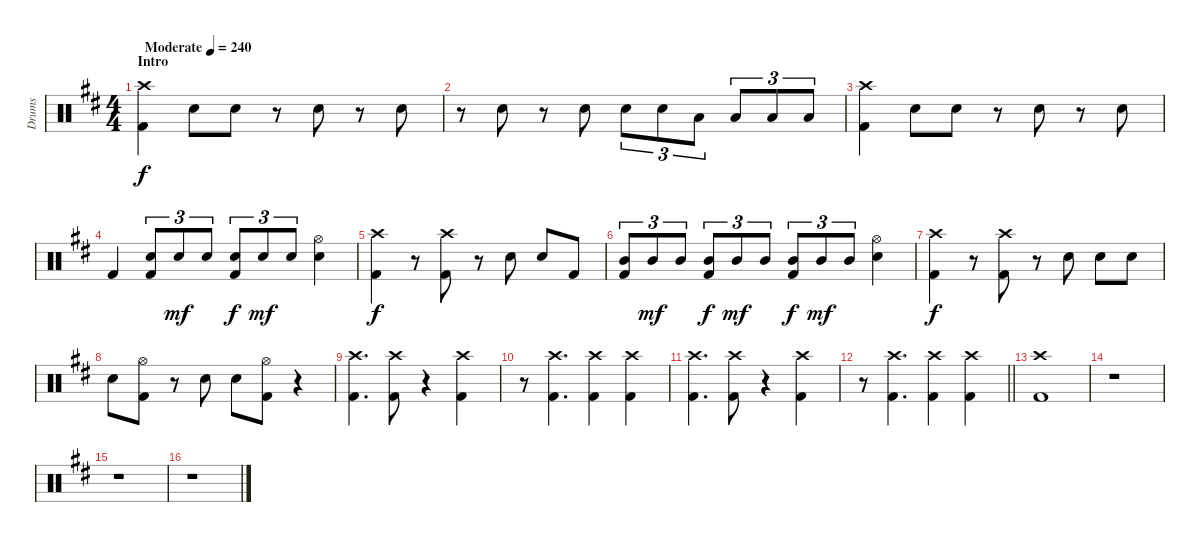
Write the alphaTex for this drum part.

\track ("Drums" "Drums") {instrument percussion}
\staff {score}
\articulation defaults
\ts (4 4)
\section ("" "Intro")
\tempo (240 "Moderate")
\clef neutral
\ks d
("Crash high (hit)" "Kick (hit) 2").4{dy f} "Electric Snare (hit)".8 "Electric Snare (hit)".8 r.8 "Electric Snare (hit)".8 r.8 "Electric Snare (hit)".8 |
r.8 "Electric Snare (hit)".8 r.8 "Electric Snare (hit)".8 "Electric Snare (hit)".8{tu (3 2)} "Electric Snare (hit)".8{tu (3 2)} "Low Tom (hit)".8{tu (3 2)} "Low Tom (hit)".8{tu (3 2)} "Low Tom (hit)".8{tu (3 2)} "Low Tom (hit)".8{tu (3 2)} |
("Crash high (hit)" "Kick (hit) 2").4 "Electric Snare (hit)".8 "Electric Snare (hit)".8 r.8 "Electric Snare (hit)".8 r.8 "Electric Snare (hit)".8 |
"Kick (hit) 2".4 ("Electric Snare (hit)" "Kick (hit) 2").8{tu (3 2)} "Electric Snare (hit)".8{tu (3 2) dy mf} "Electric Snare (hit)".8{tu (3 2)} ("Electric Snare (hit)" "Kick (hit) 2").8{tu (3 2) dy f} "Electric Snare (hit)".8{tu (3 2) dy mf} "Electric Snare (hit)".8{tu (3 2)} ("Hi-Hat (open)" "Electric Snare (hit)").4 |
("Crash high (hit)" "Kick (hit) 2").4{dy f} r.8 ("Crash high (hit)" "Kick (hit) 2").8 r.8 "Electric Snare (hit)".8 "Electric Snare (hit)".8 "Kick (hit) 2".8 |
("Mid Tom (hit)" "Kick (hit) 2").8{tu (3 2)} "Mid Tom (hit)".8{tu (3 2) dy mf} "Mid Tom (hit)".8{tu (3 2)} ("Mid Tom (hit)" "Kick (hit) 2").8{tu (3 2) dy f} "Mid Tom (hit)".8{tu (3 2) dy mf} "Mid Tom (hit)".8{tu (3 2)} ("Mid Tom (hit)" "Kick (hit) 2").8{tu (3 2) dy f} "Mid Tom (hit)".8{tu (3 2) dy mf} "Mid Tom (hit)".8{tu (3 2)} ("Hi-Hat (open)" "Electric Snare (hit)").4 |
("Crash high (hit)" "Kick (hit) 2").4{dy f} r.8 ("Crash high (hit)" "Kick (hit) 2").8 r.8 "Electric Snare (hit)".8 "Electric Snare (hit)".8 "Electric Snare (hit)".8 |
"Electric Snare (hit)".8 ("Hi-Hat (open)" "Kick (hit) 2").8 r.8 "Electric Snare (hit)".8 "Electric Snare (hit)".8 ("Hi-Hat (open)" "Kick (hit) 2").8 r.4 |
("Crash high (hit)" "Kick (hit) 2").4{d} ("Crash high (hit)" "Kick (hit) 2").8 r.4 ("Crash high (hit)" "Kick (hit) 2").4 |
r.8 ("Crash high (hit)" "Kick (hit) 2").4{d} ("Crash high (hit)" "Kick (hit) 2").4 ("Crash high (hit)" "Kick (hit) 2").4 |
("Crash high (hit)" "Kick (hit) 2").4{d} ("Crash high (hit)" "Kick (hit) 2").8 r.4 ("Crash high (hit)" "Kick (hit) 2").4 |
\barLineRight lightlight
r.8 ("Crash high (hit)" "Kick (hit) 2").4{d} ("Crash high (hit)" "Kick (hit) 2").4 ("Crash high (hit)" "Kick (hit) 2").4 |
("Crash high (hit)" "Kick (hit) 2").1 |
r.1 |
r.1 |
r.1
